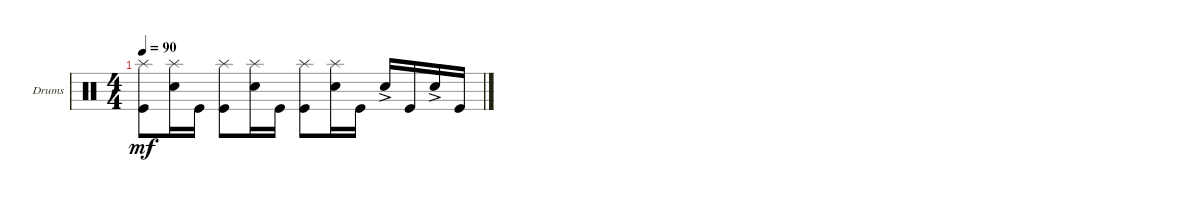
\defaultSystemsLayout 4
\bracketExtendMode groupsimilarinstruments
\firstSystemTrackNameOrientation horizontal
\otherSystemsTrackNameOrientation horizontal
\track ("Drumkit" "Drums") {instrument percussion}
\staff {score}
\articulation defaults
\ts (4 4)
\tempo 90
\clef neutral
\ks c
("Kick (hit)" "Splash (hit)").8{dy mf} ("Snare (hit) 2" "Splash (hit)").16 "Kick (hit)".16 ("Kick (hit)" "Splash (hit)").8 ("Snare (hit) 2" "Splash (hit)").16 "Kick (hit)".16 ("Kick (hit)" "Splash (hit)").8 ("Snare (hit) 2" "Splash (hit)").16 "Kick (hit)".16 "Snare (hit) 2"{ac}.16 "Kick (hit)".16 "Snare (hit) 2"{ac}.16 "Kick (hit)".16
